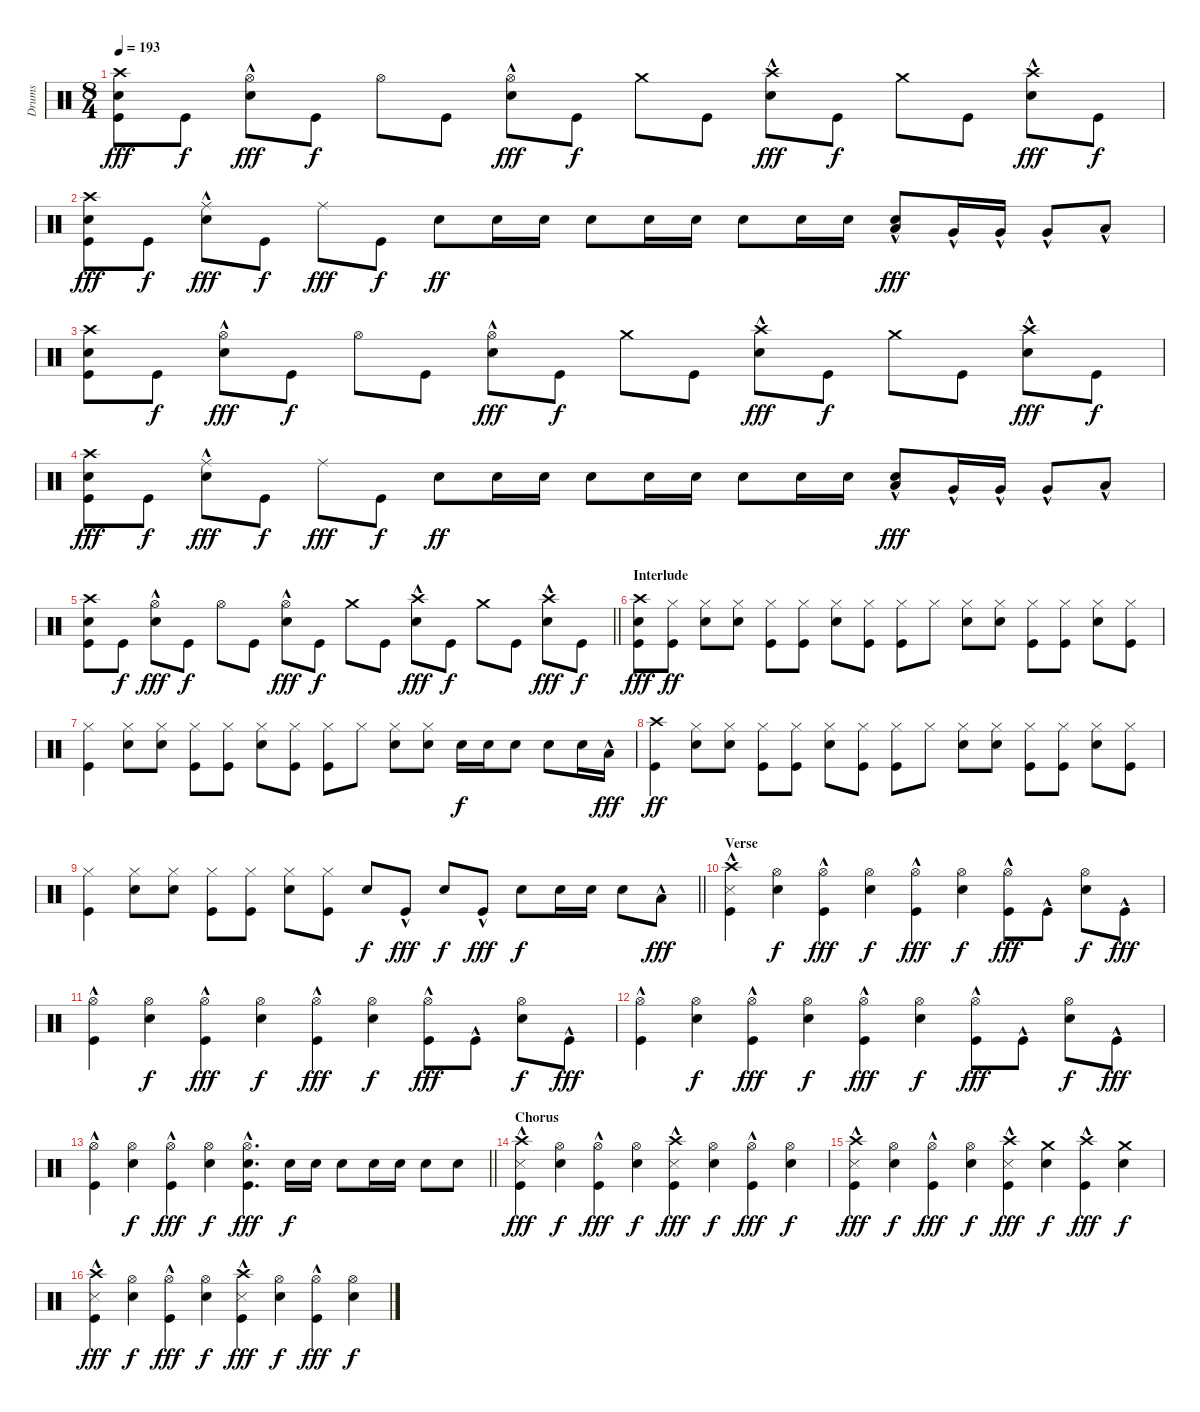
\track ("Drums" "Drums") {instrument percussion}
\staff {score}
\articulation defaults
\ts (8 4)
\tempo 193
\clef neutral
\ks c
("Crash high (hit)" "Snare (hit) 2" "Kick (hit)").8{dy fff} "Kick (hit)".8{dy f} ("Hi-Hat (open)" "Snare (hit) 2"{hac}).8{dy fff} "Kick (hit)".8{dy f} "Hi-Hat (open)".8 "Kick (hit)".8 ("Hi-Hat (open)" "Snare (hit) 2"{hac}).8{dy fff} "Kick (hit)".8{dy f} "Crash medium (hit)".8 "Kick (hit)".8 ("Crash high (hit)" "Snare (hit) 2"{hac}).8{dy fff} "Kick (hit)".8{dy f} "Crash medium (hit)".8 "Kick (hit)".8 ("Crash high (hit)" "Snare (hit) 2"{hac}).8{dy fff} "Kick (hit)".8{dy f} |
("Crash high (hit)" "Snare (hit) 2" "Kick (hit)").8{dy fff} "Kick (hit)".8{dy f} ("Ride (middle)" "Snare (hit) 2"{hac}).8{dy fff} "Kick (hit)".8{dy f} "Ride (middle)".8{dy fff} "Kick (hit)".8{dy f} "Snare (hit) 2".8{dy ff} "Snare (hit) 2".16 "Snare (hit) 2".16 "Snare (hit) 2".8 "Snare (hit) 2".16 "Snare (hit) 2".16 "Snare (hit) 2".8 "Snare (hit) 2".16 "Snare (hit) 2".16 ("Snare (hit) 2" "Low Tom (hit)"{hac}).8{dy fff} "Very Low Tom (hit)"{hac}.16 "Very Low Tom (hit)"{hac}.16 "Very Low Tom (hit)"{hac}.8 "Low Floor Tom (hit)"{hac}.8 |
("Crash high (hit)" "Snare (hit) 2" "Kick (hit)").8 "Kick (hit)".8{dy f} ("Hi-Hat (open)" "Snare (hit) 2"{hac}).8{dy fff} "Kick (hit)".8{dy f} "Hi-Hat (open)".8 "Kick (hit)".8 ("Hi-Hat (open)" "Snare (hit) 2"{hac}).8{dy fff} "Kick (hit)".8{dy f} "Crash medium (hit)".8 "Kick (hit)".8 ("Crash high (hit)" "Snare (hit) 2"{hac}).8{dy fff} "Kick (hit)".8{dy f} "Crash medium (hit)".8 "Kick (hit)".8 ("Crash high (hit)" "Snare (hit) 2"{hac}).8{dy fff} "Kick (hit)".8{dy f} |
("Crash high (hit)" "Snare (hit) 2" "Kick (hit)").8{dy fff} "Kick (hit)".8{dy f} ("Ride (middle)" "Snare (hit) 2"{hac}).8{dy fff} "Kick (hit)".8{dy f} "Ride (middle)".8{dy fff} "Kick (hit)".8{dy f} "Snare (hit) 2".8{dy ff} "Snare (hit) 2".16 "Snare (hit) 2".16 "Snare (hit) 2".8 "Snare (hit) 2".16 "Snare (hit) 2".16 "Snare (hit) 2".8 "Snare (hit) 2".16 "Snare (hit) 2".16 ("Snare (hit) 2" "Low Tom (hit)"{hac}).8{dy fff} "Very Low Tom (hit)"{hac}.16 "Very Low Tom (hit)"{hac}.16 "Very Low Tom (hit)"{hac}.8 "Low Floor Tom (hit)"{hac}.8 |
\barLineRight lightlight
("Crash high (hit)" "Snare (hit) 2" "Kick (hit)").8 "Kick (hit)".8{dy f} ("Hi-Hat (open)" "Snare (hit) 2"{hac}).8{dy fff} "Kick (hit)".8{dy f} "Hi-Hat (open)".8 "Kick (hit)".8 ("Hi-Hat (open)" "Snare (hit) 2"{hac}).8{dy fff} "Kick (hit)".8{dy f} "Crash medium (hit)".8 "Kick (hit)".8 ("Crash high (hit)" "Snare (hit) 2"{hac}).8{dy fff} "Kick (hit)".8{dy f} "Crash medium (hit)".8 "Kick (hit)".8 ("Crash high (hit)" "Snare (hit) 2"{hac}).8{dy fff} "Kick (hit)".8{dy f} |
\section ("" "Interlude")
("Crash high (hit)" "Snare (hit) 2" "Kick (hit)").8{dy fff} ("Hi-Hat (closed)" "Kick (hit)").8{dy ff} ("Hi-Hat (closed)" "Snare (hit) 2").8 ("Hi-Hat (closed)" "Snare (hit) 2").8 ("Hi-Hat (closed)" "Kick (hit)").8 ("Hi-Hat (closed)" "Kick (hit)").8 ("Hi-Hat (closed)" "Snare (hit) 2").8 ("Hi-Hat (closed)" "Kick (hit)").8 ("Hi-Hat (closed)" "Kick (hit)").8 "Hi-Hat (closed)".8 ("Hi-Hat (closed)" "Snare (hit) 2").8 ("Hi-Hat (closed)" "Snare (hit) 2").8 ("Hi-Hat (closed)" "Kick (hit)").8 ("Hi-Hat (closed)" "Kick (hit)").8 ("Hi-Hat (closed)" "Snare (hit) 2").8 ("Hi-Hat (closed)" "Kick (hit)").8 |
("Hi-Hat (closed)" "Kick (hit)").4 ("Hi-Hat (closed)" "Snare (hit) 2").8 ("Hi-Hat (closed)" "Snare (hit) 2").8 ("Hi-Hat (closed)" "Kick (hit)").8 ("Hi-Hat (closed)" "Kick (hit)").8 ("Hi-Hat (closed)" "Snare (hit) 2").8 ("Hi-Hat (closed)" "Kick (hit)").8 ("Hi-Hat (closed)" "Kick (hit)").8 "Hi-Hat (closed)".8 ("Hi-Hat (closed)" "Snare (hit) 2").8 ("Hi-Hat (closed)" "Snare (hit) 2").8 "Snare (hit) 2".16{dy f} "Snare (hit) 2".16 "Snare (hit) 2".8 "Snare (hit) 2".8 "Snare (hit) 2".16 "Low Tom (hit)"{hac}.16{dy fff} |
("Crash high (hit)" "Kick (hit)").4{dy ff} ("Hi-Hat (closed)" "Snare (hit) 2").8 ("Hi-Hat (closed)" "Snare (hit) 2").8 ("Hi-Hat (closed)" "Kick (hit)").8 ("Hi-Hat (closed)" "Kick (hit)").8 ("Hi-Hat (closed)" "Snare (hit) 2").8 ("Hi-Hat (closed)" "Kick (hit)").8 ("Hi-Hat (closed)" "Kick (hit)").8 "Hi-Hat (closed)".8 ("Hi-Hat (closed)" "Snare (hit) 2").8 ("Hi-Hat (closed)" "Snare (hit) 2").8 ("Hi-Hat (closed)" "Kick (hit)").8 ("Hi-Hat (closed)" "Kick (hit)").8 ("Hi-Hat (closed)" "Snare (hit) 2").8 ("Hi-Hat (closed)" "Kick (hit)").8 |
\barLineRight lightlight
("Hi-Hat (closed)" "Kick (hit)").4 ("Hi-Hat (closed)" "Snare (hit) 2").8 ("Hi-Hat (closed)" "Snare (hit) 2").8 ("Hi-Hat (closed)" "Kick (hit)").8 ("Hi-Hat (closed)" "Kick (hit)").8 ("Hi-Hat (closed)" "Snare (hit) 2").8 ("Hi-Hat (closed)" "Kick (hit)").8 "Snare (hit) 2".8{dy f} "Kick (hit)"{hac}.8{dy fff} "Snare (hit) 2".8{dy f} "Kick (hit)"{hac}.8{dy fff} "Snare (hit) 2".8{dy f} "Snare (hit) 2".16 "Snare (hit) 2".16 "Snare (hit) 2".8 "Low Tom (hit)"{hac}.8{dy fff} |
\section ("" "Verse")
("Snare (side stick) 3" "Crash high (hit)" "Kick (hit)"{hac}).4 ("Hi-Hat (open)" "Snare (hit) 2").4{dy f} ("Hi-Hat (open)" "Kick (hit)"{hac}).4{dy fff} ("Hi-Hat (open)" "Snare (hit) 2").4{dy f} ("Hi-Hat (open)" "Kick (hit)"{hac}).4{dy fff} ("Hi-Hat (open)" "Snare (hit) 2").4{dy f} ("Hi-Hat (open)" "Kick (hit)"{hac}).8{dy fff} "Kick (hit)"{hac}.8 ("Hi-Hat (open)" "Snare (hit) 2").8{dy f} "Kick (hit)"{hac}.8{dy fff} |
("Hi-Hat (open)" "Kick (hit)"{hac}).4 ("Hi-Hat (open)" "Snare (hit) 2").4{dy f} ("Hi-Hat (open)" "Kick (hit)"{hac}).4{dy fff} ("Hi-Hat (open)" "Snare (hit) 2").4{dy f} ("Hi-Hat (open)" "Kick (hit)"{hac}).4{dy fff} ("Hi-Hat (open)" "Snare (hit) 2").4{dy f} ("Hi-Hat (open)" "Kick (hit)"{hac}).8{dy fff} "Kick (hit)"{hac}.8 ("Hi-Hat (open)" "Snare (hit) 2").8{dy f} "Kick (hit)"{hac}.8{dy fff} |
("Hi-Hat (open)" "Kick (hit)"{hac}).4 ("Hi-Hat (open)" "Snare (hit) 2").4{dy f} ("Hi-Hat (open)" "Kick (hit)"{hac}).4{dy fff} ("Hi-Hat (open)" "Snare (hit) 2").4{dy f} ("Hi-Hat (open)" "Kick (hit)"{hac}).4{dy fff} ("Hi-Hat (open)" "Snare (hit) 2").4{dy f} ("Hi-Hat (open)" "Kick (hit)"{hac}).8{dy fff} "Kick (hit)"{hac}.8 ("Hi-Hat (open)" "Snare (hit) 2").8{dy f} "Kick (hit)"{hac}.8{dy fff} |
\barLineRight lightlight
("Hi-Hat (open)" "Kick (hit)"{hac}).4 ("Hi-Hat (open)" "Snare (hit) 2").4{dy f} ("Hi-Hat (open)" "Kick (hit)"{hac}).4{dy fff} ("Hi-Hat (open)" "Snare (hit) 2").4{dy f} ("Hi-Hat (open)" "Snare (hit) 2" "Kick (hit)"{hac}).4{d dy fff} "Snare (hit) 2".16{dy f} "Snare (hit) 2".16 "Snare (hit) 2".8 "Snare (hit) 2".16 "Snare (hit) 2".16 "Snare (hit) 2".8 "Snare (hit) 2".8 |
\section ("" "Chorus")
("Snare (side stick) 3" "Crash high (hit)" "Kick (hit)"{hac}).4{dy fff} ("Hi-Hat (open)" "Snare (hit) 2").4{dy f} ("Hi-Hat (open)" "Kick (hit)"{hac}).4{dy fff} ("Hi-Hat (open)" "Snare (hit) 2").4{dy f} ("Snare (side stick) 3" "Crash high (hit)" "Kick (hit)"{hac}).4{dy fff} ("Hi-Hat (open)" "Snare (hit) 2").4{dy f} ("Hi-Hat (open)" "Kick (hit)"{hac}).4{dy fff} ("Hi-Hat (open)" "Snare (hit) 2").4{dy f} |
("Snare (side stick) 3" "Crash high (hit)" "Kick (hit)"{hac}).4{dy fff} ("Hi-Hat (open)" "Snare (hit) 2").4{dy f} ("Hi-Hat (open)" "Kick (hit)"{hac}).4{dy fff} ("Hi-Hat (open)" "Snare (hit) 2").4{dy f} ("Snare (side stick) 3" "Crash high (hit)" "Kick (hit)"{hac}).4{dy fff} ("Crash medium (hit)" "Snare (hit) 2").4{dy f} ("Crash high (hit)" "Kick (hit)"{hac}).4{dy fff} ("Crash medium (hit)" "Snare (hit) 2").4{dy f} |
("Snare (side stick) 3" "Crash high (hit)" "Kick (hit)"{hac}).4{dy fff} ("Hi-Hat (open)" "Snare (hit) 2").4{dy f} ("Hi-Hat (open)" "Kick (hit)"{hac}).4{dy fff} ("Hi-Hat (open)" "Snare (hit) 2").4{dy f} ("Snare (side stick) 3" "Crash high (hit)" "Kick (hit)"{hac}).4{dy fff} ("Hi-Hat (open)" "Snare (hit) 2").4{dy f} ("Hi-Hat (open)" "Kick (hit)"{hac}).4{dy fff} ("Hi-Hat (open)" "Snare (hit) 2").4{dy f}
